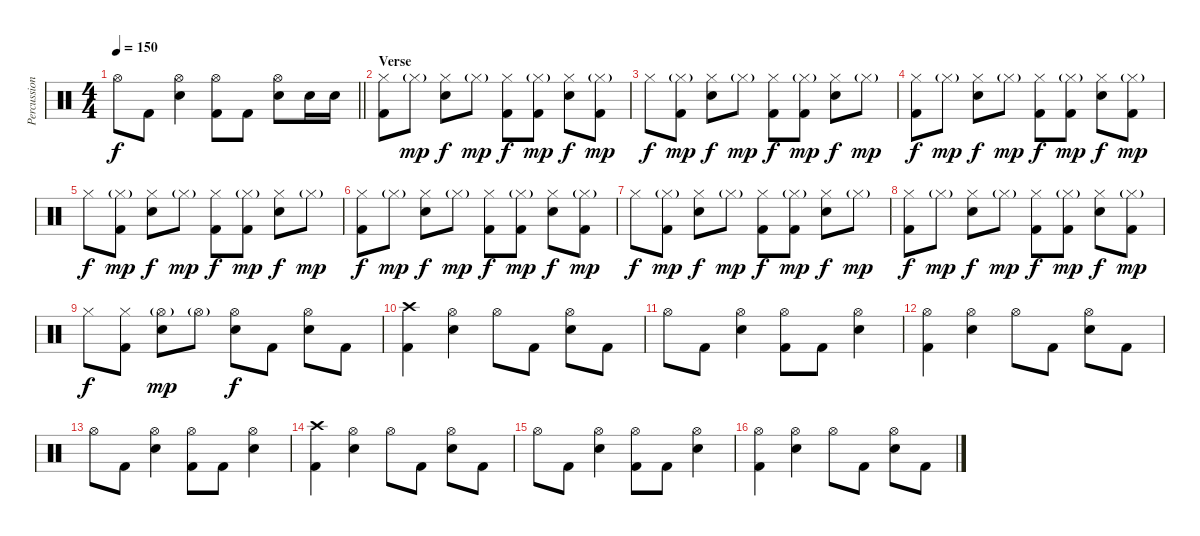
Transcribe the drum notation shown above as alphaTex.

\track ("Percussion" "Percussion") {instrument percussion}
\staff {score}
\articulation defaults
\ts (4 4)
\tempo 150
\clef neutral
\barLineRight lightlight
\ks c "Hi-Hat (open)".8{dy f} "Kick (hit) 2".8
("Hi-Hat (open)" "Electric Snare (hit)").4 ("Hi-Hat (open)" "Kick (hit) 2").8 "Kick (hit) 2".8 ("Hi-Hat (open)" "Electric Snare (hit)").8 "Electric Snare (hit)".16 "Electric Snare (hit)".16 |
\section ("" "Verse")
("Hi-Hat (closed)" "Kick (hit) 2").8 "Hi-Hat (closed)"{g}.8{dy mp} ("Hi-Hat (closed)" "Electric Snare (hit)").8{dy f} "Hi-Hat (closed)"{g}.8{dy mp} ("Hi-Hat (closed)" "Kick (hit) 2").8{dy f} ("Hi-Hat (closed)"{g} "Kick (hit) 2").8{dy mp} ("Hi-Hat (closed)" "Electric Snare (hit)").8{dy f} ("Hi-Hat (closed)"{g} "Kick (hit) 2").8{dy mp} |
"Hi-Hat (closed)".8{dy f} ("Hi-Hat (closed)"{g} "Kick (hit) 2").8{dy mp} ("Hi-Hat (closed)" "Electric Snare (hit)").8{dy f} "Hi-Hat (closed)"{g}.8{dy mp} ("Hi-Hat (closed)" "Kick (hit) 2").8{dy f} ("Hi-Hat (closed)"{g} "Kick (hit) 2").8{dy mp} ("Hi-Hat (closed)" "Electric Snare (hit)").8{dy f} "Hi-Hat (closed)"{g}.8{dy mp} |
("Hi-Hat (closed)" "Kick (hit) 2").8{dy f} "Hi-Hat (closed)"{g}.8{dy mp} ("Hi-Hat (closed)" "Electric Snare (hit)").8{dy f} "Hi-Hat (closed)"{g}.8{dy mp} ("Hi-Hat (closed)" "Kick (hit) 2").8{dy f} ("Hi-Hat (closed)"{g} "Kick (hit) 2").8{dy mp} ("Hi-Hat (closed)" "Electric Snare (hit)").8{dy f} ("Hi-Hat (closed)"{g} "Kick (hit) 2").8{dy mp} |
"Hi-Hat (closed)".8{dy f} ("Hi-Hat (closed)"{g} "Kick (hit) 2").8{dy mp} ("Hi-Hat (closed)" "Electric Snare (hit)").8{dy f} "Hi-Hat (closed)"{g}.8{dy mp} ("Hi-Hat (closed)" "Kick (hit) 2").8{dy f} ("Hi-Hat (closed)"{g} "Kick (hit) 2").8{dy mp} ("Hi-Hat (closed)" "Electric Snare (hit)").8{dy f} "Hi-Hat (closed)"{g}.8{dy mp} |
("Hi-Hat (closed)" "Kick (hit) 2").8{dy f} "Hi-Hat (closed)"{g}.8{dy mp} ("Hi-Hat (closed)" "Electric Snare (hit)").8{dy f} "Hi-Hat (closed)"{g}.8{dy mp} ("Hi-Hat (closed)" "Kick (hit) 2").8{dy f} ("Hi-Hat (closed)"{g} "Kick (hit) 2").8{dy mp} ("Hi-Hat (closed)" "Electric Snare (hit)").8{dy f} ("Hi-Hat (closed)"{g} "Kick (hit) 2").8{dy mp} |
"Hi-Hat (closed)".8{dy f} ("Hi-Hat (closed)"{g} "Kick (hit) 2").8{dy mp} ("Hi-Hat (closed)" "Electric Snare (hit)").8{dy f} "Hi-Hat (closed)"{g}.8{dy mp} ("Hi-Hat (closed)" "Kick (hit) 2").8{dy f} ("Hi-Hat (closed)"{g} "Kick (hit) 2").8{dy mp} ("Hi-Hat (closed)" "Electric Snare (hit)").8{dy f} "Hi-Hat (closed)"{g}.8{dy mp} |
("Hi-Hat (closed)" "Kick (hit) 2").8{dy f} "Hi-Hat (closed)"{g}.8{dy mp} ("Hi-Hat (closed)" "Electric Snare (hit)").8{dy f} "Hi-Hat (closed)"{g}.8{dy mp} ("Hi-Hat (closed)" "Kick (hit) 2").8{dy f} ("Hi-Hat (closed)"{g} "Kick (hit) 2").8{dy mp} ("Hi-Hat (closed)" "Electric Snare (hit)").8{dy f} ("Hi-Hat (closed)"{g} "Kick (hit) 2").8{dy mp} |
"Hi-Hat (closed)".8{dy f} ("Hi-Hat (closed)" "Kick (hit) 2").8 ("Hi-Hat (open)"{g} "Electric Snare (hit)").8{dy mp} "Hi-Hat (open)"{g}.8 ("Hi-Hat (open)" "Electric Snare (hit)").8{dy f} "Kick (hit) 2".8 ("Hi-Hat (open)" "Electric Snare (hit)").8 "Kick (hit) 2".8 |
("Crash high (hit)" "Kick (hit) 2").4 ("Hi-Hat (open)" "Electric Snare (hit)").4 "Hi-Hat (open)".8 "Kick (hit) 2".8 ("Hi-Hat (open)" "Electric Snare (hit)").8 "Kick (hit) 2".8 |
"Hi-Hat (open)".8 "Kick (hit) 2".8 ("Hi-Hat (open)" "Electric Snare (hit)").4 ("Hi-Hat (open)" "Kick (hit) 2").8 "Kick (hit) 2".8 ("Hi-Hat (open)" "Electric Snare (hit)").4 |
("Hi-Hat (open)" "Kick (hit) 2").4 ("Hi-Hat (open)" "Electric Snare (hit)").4 "Hi-Hat (open)".8 "Kick (hit) 2".8 ("Hi-Hat (open)" "Electric Snare (hit)").8 "Kick (hit) 2".8 |
"Hi-Hat (open)".8 "Kick (hit) 2".8 ("Hi-Hat (open)" "Electric Snare (hit)").4 ("Hi-Hat (open)" "Kick (hit) 2").8 "Kick (hit) 2".8 ("Hi-Hat (open)" "Electric Snare (hit)").4 |
("Crash high (hit)" "Kick (hit) 2").4 ("Hi-Hat (open)" "Electric Snare (hit)").4 "Hi-Hat (open)".8 "Kick (hit) 2".8 ("Hi-Hat (open)" "Electric Snare (hit)").8 "Kick (hit) 2".8 |
"Hi-Hat (open)".8 "Kick (hit) 2".8 ("Hi-Hat (open)" "Electric Snare (hit)").4 ("Hi-Hat (open)" "Kick (hit) 2").8 "Kick (hit) 2".8 ("Hi-Hat (open)" "Electric Snare (hit)").4 |
("Hi-Hat (open)" "Kick (hit) 2").4 ("Hi-Hat (open)" "Electric Snare (hit)").4 "Hi-Hat (open)".8 "Kick (hit) 2".8 ("Hi-Hat (open)" "Electric Snare (hit)").8 "Kick (hit) 2".8
